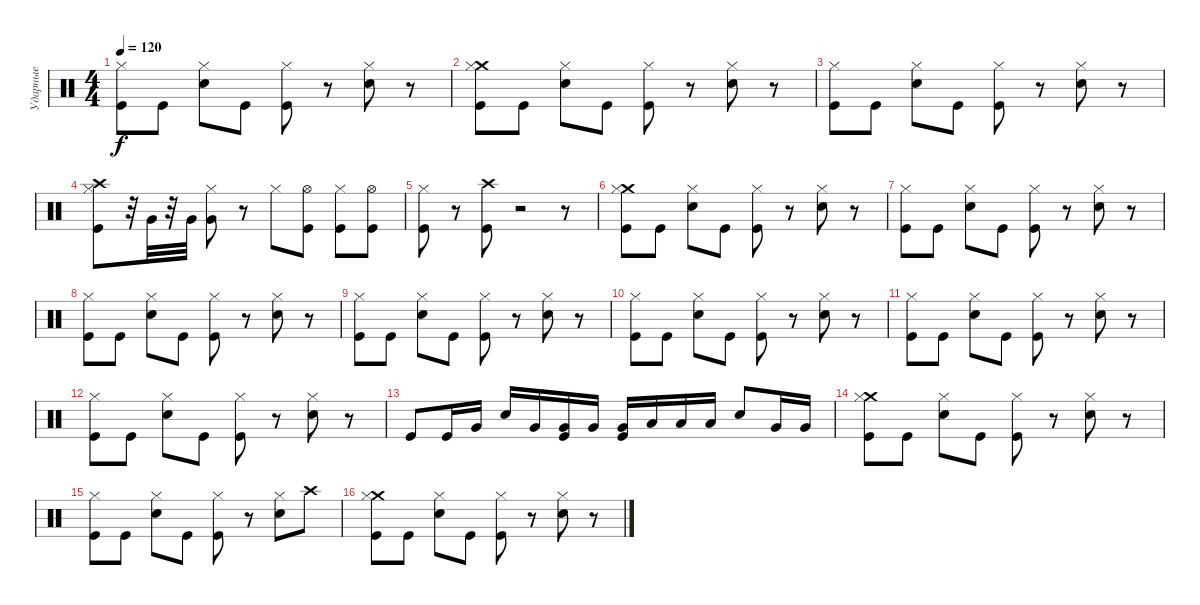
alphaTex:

\track ("Ударные" "Ударные") {instrument percussion}
\staff {score}
\articulation defaults
\ts (4 4)
\tempo 120
\clef neutral
\ks c
("Hi-Hat (closed)" "Kick (hit)").8{dy f} "Kick (hit)".8 ("Hi-Hat (closed)" "Snare (hit) 2").8 "Kick (hit)".8 ("Hi-Hat (closed)" "Kick (hit)").8 r.8 ("Hi-Hat (closed)" "Snare (hit) 2").8 r.8 |
("Crash medium (hit)" "Hi-Hat (closed)" "Kick (hit)").8 "Kick (hit)".8 ("Hi-Hat (closed)" "Snare (hit) 2").8 "Kick (hit)".8 ("Hi-Hat (closed)" "Kick (hit)").8 r.8 ("Hi-Hat (closed)" "Snare (hit) 2").8 r.8 |
("Hi-Hat (closed)" "Kick (hit)").8 "Kick (hit)".8 ("Hi-Hat (closed)" "Snare (hit) 2").8 "Kick (hit)".8 ("Hi-Hat (closed)" "Kick (hit)").8 r.8 ("Hi-Hat (closed)" "Snare (hit) 2").8 r.8 |
("Crash high (hit)" "Hi-Hat (closed)" "Kick (hit)").8 r.32 "Very Low Tom (hit)".32 r.32 "Very Low Tom (hit)".32 ("Very Low Tom (hit)" "Hi-Hat (closed)").8 r.8 "Hi-Hat (closed)".8 ("Kick (hit)" "Hi-Hat (open)").8 ("Hi-Hat (closed)" "Kick (hit)").8 ("Hi-Hat (open)" "Kick (hit)").8 |
("Kick (hit)" "Hi-Hat (closed)").8 r.8 ("Kick (hit)" "Crash high (hit)").8 r.2 r.8 |
("Crash medium (hit)" "Hi-Hat (closed)" "Kick (hit)").8 "Kick (hit)".8 ("Hi-Hat (closed)" "Snare (hit) 2").8 "Kick (hit)".8 ("Hi-Hat (closed)" "Kick (hit)").8 r.8 ("Hi-Hat (closed)" "Snare (hit) 2").8 r.8 |
("Hi-Hat (closed)" "Kick (hit)").8 "Kick (hit)".8 ("Hi-Hat (closed)" "Snare (hit) 2").8 "Kick (hit)".8 ("Hi-Hat (closed)" "Kick (hit)").8 r.8 ("Hi-Hat (closed)" "Snare (hit) 2").8 r.8 |
("Hi-Hat (closed)" "Kick (hit)").8 "Kick (hit)".8 ("Hi-Hat (closed)" "Snare (hit) 2").8 "Kick (hit)".8 ("Hi-Hat (closed)" "Kick (hit)").8 r.8 ("Hi-Hat (closed)" "Snare (hit) 2").8 r.8 |
("Hi-Hat (closed)" "Kick (hit)").8 "Kick (hit)".8 ("Hi-Hat (closed)" "Snare (hit) 2").8 "Kick (hit)".8 ("Hi-Hat (closed)" "Kick (hit)").8 r.8 ("Hi-Hat (closed)" "Snare (hit) 2").8 r.8 |
("Hi-Hat (closed)" "Kick (hit)").8 "Kick (hit)".8 ("Hi-Hat (closed)" "Snare (hit) 2").8 "Kick (hit)".8 ("Hi-Hat (closed)" "Kick (hit)").8 r.8 ("Hi-Hat (closed)" "Snare (hit) 2").8 r.8 |
("Hi-Hat (closed)" "Kick (hit)").8 "Kick (hit)".8 ("Hi-Hat (closed)" "Snare (hit) 2").8 "Kick (hit)".8 ("Hi-Hat (closed)" "Kick (hit)").8 r.8 ("Hi-Hat (closed)" "Snare (hit) 2").8 r.8 |
("Hi-Hat (closed)" "Kick (hit)").8 "Kick (hit)".8 ("Hi-Hat (closed)" "Snare (hit) 2").8 "Kick (hit)".8 ("Hi-Hat (closed)" "Kick (hit)").8 r.8 ("Hi-Hat (closed)" "Snare (hit) 2").8 r.8 |
"Kick (hit)".8 "Kick (hit)".16 "Very Low Tom (hit)".16 "Snare (hit) 2".16 "Very Low Tom (hit)".16 ("Very Low Tom (hit)" "Kick (hit)").16 "Very Low Tom (hit)".16 ("Very Low Tom (hit)" "Kick (hit)").16 "Low Floor Tom (hit)".16 "Low Floor Tom (hit)".16 "Low Floor Tom (hit)".16 "Snare (hit) 2".8 "Very Low Tom (hit)".16 "Very Low Tom (hit)".16 |
("Crash medium (hit)" "Hi-Hat (closed)" "Kick (hit)").8 "Kick (hit)".8 ("Hi-Hat (closed)" "Snare (hit) 2").8 "Kick (hit)".8 ("Hi-Hat (closed)" "Kick (hit)").8 r.8 ("Hi-Hat (closed)" "Snare (hit) 2").8 r.8 |
("Hi-Hat (closed)" "Kick (hit)").8 "Kick (hit)".8 ("Hi-Hat (closed)" "Snare (hit) 2").8 "Kick (hit)".8 ("Hi-Hat (closed)" "Kick (hit)").8 r.8 ("Hi-Hat (closed)" "Snare (hit) 2").8 "Crash high (hit)".8 |
("Crash medium (hit)" "Hi-Hat (closed)" "Kick (hit)").8 "Kick (hit)".8 ("Hi-Hat (closed)" "Snare (hit) 2").8 "Kick (hit)".8 ("Hi-Hat (closed)" "Kick (hit)").8 r.8 ("Hi-Hat (closed)" "Snare (hit) 2").8 r.8
